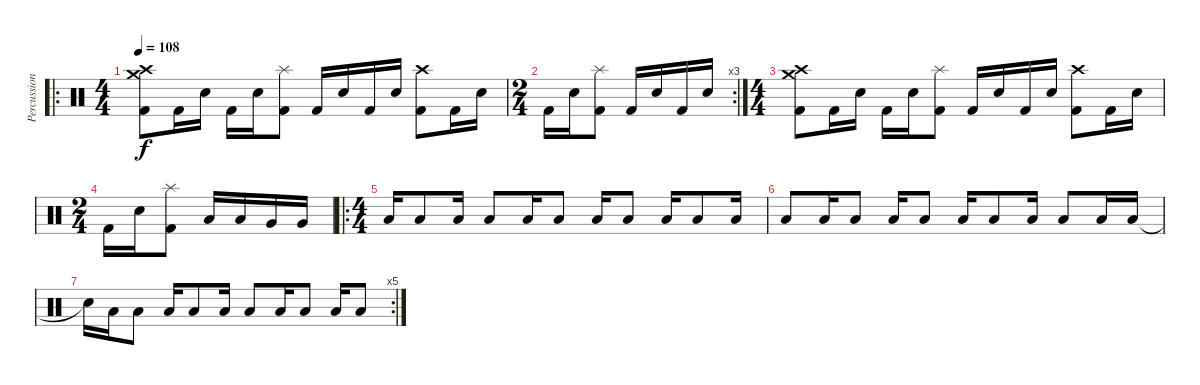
\track ("Percussion" "Percussion") {instrument percussion}
\staff {score}
\articulation defaults
\ro
\ts (4 4)
\tempo 108
\clef neutral
\ks c
("Crash high (hit)" "Crash medium (hit)" "Kick (hit) 2").8{dy f} "Kick (hit) 2".16 "Electric Snare (hit)".16 "Kick (hit) 2".16 "Electric Snare (hit)".16 ("Splash (hit)" "Kick (hit) 2").8 "Kick (hit) 2".16 "Electric Snare (hit)".16 "Kick (hit) 2".16 "Electric Snare (hit)".16 ("Crash high (hit)" "Kick (hit) 2").8 "Kick (hit) 2".16 "Electric Snare (hit)".16 |
\rc 3
\ts (2 4)
"Kick (hit) 2".16 "Electric Snare (hit)".16 ("Splash (hit)" "Kick (hit) 2").8 "Kick (hit) 2".16 "Electric Snare (hit)".16 "Kick (hit) 2".16 "Electric Snare (hit)".16 |
\ts (4 4)
("Crash high (hit)" "Crash medium (hit)" "Kick (hit) 2").8 "Kick (hit) 2".16 "Electric Snare (hit)".16 "Kick (hit) 2".16 "Electric Snare (hit)".16 ("Splash (hit)" "Kick (hit) 2").8 "Kick (hit) 2".16 "Electric Snare (hit)".16 "Kick (hit) 2".16 "Electric Snare (hit)".16 ("Crash high (hit)" "Kick (hit) 2").8 "Kick (hit) 2".16 "Electric Snare (hit)".16 |
\ts (2 4)
"Kick (hit) 2".16 "Electric Snare (hit)".16 ("Splash (hit)" "Kick (hit) 2").8 "Low Tom (hit)".16 "Low Tom (hit)".16 "Very Low Tom (hit)".16 "Very Low Tom (hit)".16 |
\ro
\ts (4 4)
"Low Floor Tom (hit)".16 "Low Floor Tom (hit)".8 "Low Floor Tom (hit)".16 "Low Floor Tom (hit)".8 "Low Floor Tom (hit)".16 "Low Floor Tom (hit)".8 "Low Floor Tom (hit)".16 "Low Floor Tom (hit)".8 "Low Floor Tom (hit)".16 "Low Floor Tom (hit)".8 "Low Floor Tom (hit)".16 |
"Low Floor Tom (hit)".8 "Low Floor Tom (hit)".16 "Low Floor Tom (hit)".8 "Low Floor Tom (hit)".16 "Low Floor Tom (hit)".8 "Low Floor Tom (hit)".16 "Low Floor Tom (hit)".8 "Low Floor Tom (hit)".16 "Low Floor Tom (hit)".8 "Low Floor Tom (hit)".16 "Low Floor Tom (hit)".16 |
\rc 5 "Snare (hit)"{t}.16 "Low Floor Tom (hit)".16 "Low Floor Tom (hit)".8 "Low Floor Tom (hit)".16 "Low Floor Tom (hit)".8 "Low Floor Tom (hit)".16 "Low Floor Tom (hit)".8 "Low Floor Tom (hit)".16 "Low Floor Tom (hit)".8 "Low Floor Tom (hit)".16 "Low Floor Tom (hit)".8
